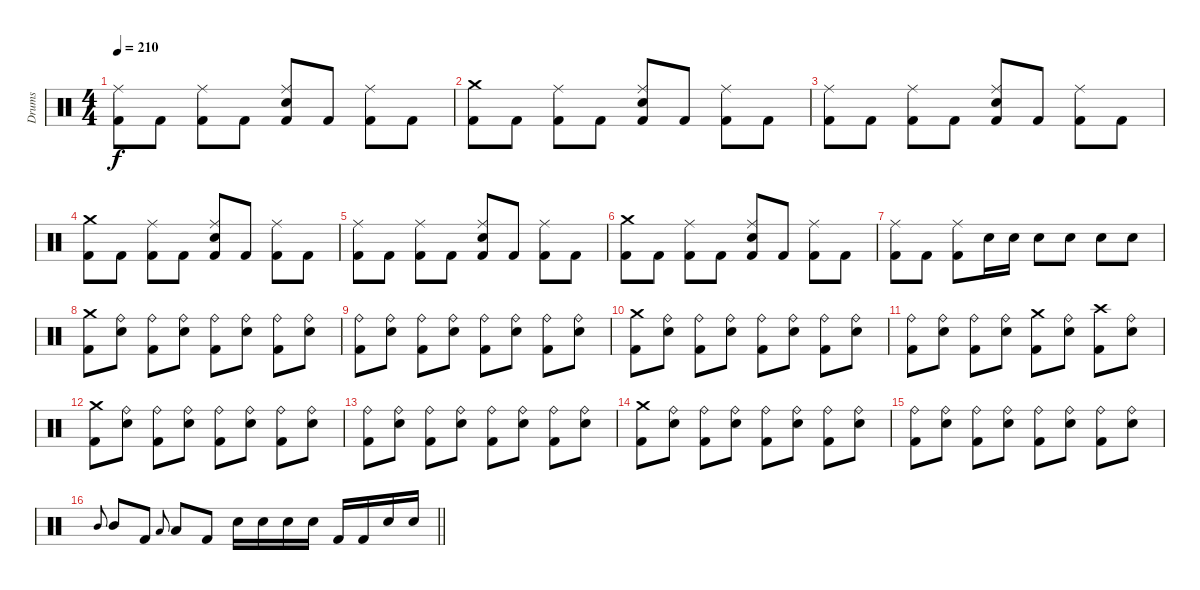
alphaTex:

\track ("Drums" "Drums") {instrument percussion}
\staff {score}
\articulation defaults
\ts (4 4)
\tempo 210
\clef neutral
\ks c
("Kick (hit) 2" "Ride (middle)").8{dy f} "Kick (hit) 2".8 ("Kick (hit) 2" "Ride (middle)").8 "Kick (hit) 2".8 ("Kick (hit) 2" "Snare (hit) 2" "Ride (middle)").8 "Kick (hit) 2".8 ("Kick (hit) 2" "Ride (middle)").8 "Kick (hit) 2".8 |
("Kick (hit) 2" "Crash medium (hit)").8 "Kick (hit) 2".8 ("Kick (hit) 2" "Ride (middle)").8 "Kick (hit) 2".8 ("Kick (hit) 2" "Snare (hit) 2" "Ride (middle)").8 "Kick (hit) 2".8 ("Kick (hit) 2" "Ride (middle)").8 "Kick (hit) 2".8 |
("Kick (hit) 2" "Ride (middle)").8 "Kick (hit) 2".8 ("Kick (hit) 2" "Ride (middle)").8 "Kick (hit) 2".8 ("Kick (hit) 2" "Snare (hit) 2" "Ride (middle)").8 "Kick (hit) 2".8 ("Kick (hit) 2" "Ride (middle)").8 "Kick (hit) 2".8 |
("Kick (hit) 2" "Crash medium (hit)").8 "Kick (hit) 2".8 ("Kick (hit) 2" "Ride (middle)").8 "Kick (hit) 2".8 ("Kick (hit) 2" "Snare (hit) 2" "Ride (middle)").8 "Kick (hit) 2".8 ("Kick (hit) 2" "Ride (middle)").8 "Kick (hit) 2".8 |
("Kick (hit) 2" "Ride (middle)").8 "Kick (hit) 2".8 ("Kick (hit) 2" "Ride (middle)").8 "Kick (hit) 2".8 ("Kick (hit) 2" "Snare (hit) 2" "Ride (middle)").8 "Kick (hit) 2".8 ("Kick (hit) 2" "Ride (middle)").8 "Kick (hit) 2".8 |
("Kick (hit) 2" "Crash medium (hit)").8 "Kick (hit) 2".8 ("Kick (hit) 2" "Ride (middle)").8 "Kick (hit) 2".8 ("Kick (hit) 2" "Snare (hit) 2" "Ride (middle)").8 "Kick (hit) 2".8 ("Kick (hit) 2" "Ride (middle)").8 "Kick (hit) 2".8 |
("Kick (hit) 2" "Ride (middle)").8 "Kick (hit) 2".8 ("Kick (hit) 2" "Ride (middle)").8 "Snare (hit) 2".16 "Snare (hit) 2".16 "Snare (hit) 2".8 "Snare (hit) 2".8 "Snare (hit) 2".8 "Snare (hit) 2".8 |
("Kick (hit) 2" "Crash medium (hit)").8 ("Snare (hit) 2" "Ride (bell)").8 ("Kick (hit) 2" "Ride (bell)").8 ("Snare (hit) 2" "Ride (bell)").8 ("Kick (hit) 2" "Ride (bell)").8 ("Snare (hit) 2" "Ride (bell)").8 ("Kick (hit) 2" "Ride (bell)").8 ("Snare (hit) 2" "Ride (bell)").8 |
("Kick (hit) 2" "Ride (bell)").8 ("Snare (hit) 2" "Ride (bell)").8 ("Kick (hit) 2" "Ride (bell)").8 ("Snare (hit) 2" "Ride (bell)").8 ("Kick (hit) 2" "Ride (bell)").8 ("Snare (hit) 2" "Ride (bell)").8 ("Kick (hit) 2" "Ride (bell)").8 ("Snare (hit) 2" "Ride (bell)").8 |
("Kick (hit) 2" "Crash medium (hit)").8 ("Snare (hit) 2" "Ride (bell)").8 ("Kick (hit) 2" "Ride (bell)").8 ("Snare (hit) 2" "Ride (bell)").8 ("Kick (hit) 2" "Ride (bell)").8 ("Snare (hit) 2" "Ride (bell)").8 ("Kick (hit) 2" "Ride (bell)").8 ("Snare (hit) 2" "Ride (bell)").8 |
("Kick (hit) 2" "Ride (bell)").8 ("Snare (hit) 2" "Ride (bell)").8 ("Kick (hit) 2" "Ride (bell)").8 ("Snare (hit) 2" "Ride (bell)").8 ("Kick (hit) 2" "Crash medium (hit)").8 ("Snare (hit) 2" "Ride (bell)").8 ("Kick (hit) 2" "Crash high (hit)").8 ("Snare (hit) 2" "Ride (bell)").8 |
("Kick (hit) 2" "Crash medium (hit)").8 ("Snare (hit) 2" "Ride (bell)").8 ("Kick (hit) 2" "Ride (bell)").8 ("Snare (hit) 2" "Ride (bell)").8 ("Kick (hit) 2" "Ride (bell)").8 ("Snare (hit) 2" "Ride (bell)").8 ("Kick (hit) 2" "Ride (bell)").8 ("Snare (hit) 2" "Ride (bell)").8 |
("Kick (hit) 2" "Ride (bell)").8 ("Snare (hit) 2" "Ride (bell)").8 ("Kick (hit) 2" "Ride (bell)").8 ("Snare (hit) 2" "Ride (bell)").8 ("Kick (hit) 2" "Ride (bell)").8 ("Snare (hit) 2" "Ride (bell)").8 ("Kick (hit) 2" "Ride (bell)").8 ("Snare (hit) 2" "Ride (bell)").8 |
("Kick (hit) 2" "Crash medium (hit)").8 ("Snare (hit) 2" "Ride (bell)").8 ("Kick (hit) 2" "Ride (bell)").8 ("Snare (hit) 2" "Ride (bell)").8 ("Kick (hit) 2" "Ride (bell)").8 ("Snare (hit) 2" "Ride (bell)").8 ("Kick (hit) 2" "Ride (bell)").8 ("Snare (hit) 2" "Ride (bell)").8 |
("Kick (hit) 2" "Ride (bell)").8 ("Snare (hit) 2" "Ride (bell)").8 ("Kick (hit) 2" "Ride (bell)").8 ("Snare (hit) 2" "Ride (bell)").8 ("Kick (hit) 2" "Ride (bell)").8 ("Snare (hit) 2" "Ride (bell)").8 ("Kick (hit) 2" "Ride (bell)").8 ("Snare (hit) 2" "Ride (bell)").8 |
\barLineRight lightlight "Mid Tom (hit)".8{gr onbeat} "Mid Tom (hit)".8 "Kick (hit) 2".8 "Low Tom (hit)".8{gr onbeat} "Low Tom (hit)".8 "Kick (hit) 2".8 "Snare (hit) 2".16 "Snare (hit) 2".16 "Snare (hit) 2".16 "Snare (hit) 2".16 "Kick (hit) 2".16 "Kick (hit) 2".16 "Snare (hit) 2".16 "Snare (hit) 2".16
